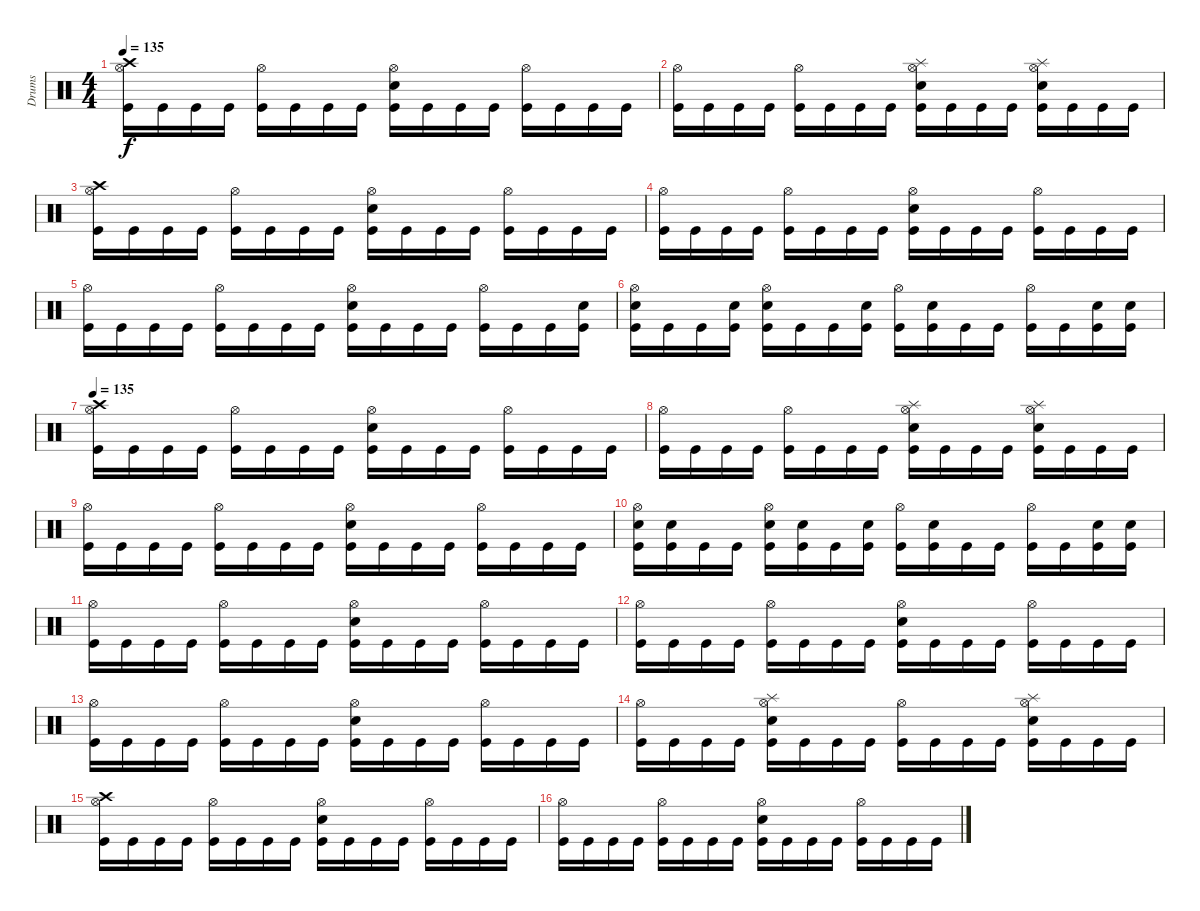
\track ("Drums" "Drums") {instrument percussion}
\staff {score}
\articulation defaults
\ts (4 4)
\tempo 135
\clef neutral
\ks c
("Crash high (hit)" "Hi-Hat (open)" "Kick (hit)").16{dy f} "Kick (hit)".16 "Kick (hit)".16 "Kick (hit)".16 ("Hi-Hat (open)" "Kick (hit)").16 "Kick (hit)".16 "Kick (hit)".16 "Kick (hit)".16 ("Hi-Hat (open)" "Electric Snare (hit)" "Kick (hit)").16 "Kick (hit)".16 "Kick (hit)".16 "Kick (hit)".16 ("Hi-Hat (open)" "Kick (hit)").16 "Kick (hit)".16 "Kick (hit)".16 "Kick (hit)".16 |
("Hi-Hat (open)" "Kick (hit)").16 "Kick (hit)".16 "Kick (hit)".16 "Kick (hit)".16 ("Hi-Hat (open)" "Kick (hit)").16 "Kick (hit)".16 "Kick (hit)".16 "Kick (hit)".16 ("Splash (hit)" "Hi-Hat (open)" "Electric Snare (hit)" "Kick (hit)").16 "Kick (hit)".16 "Kick (hit)".16 "Kick (hit)".16 ("Splash (hit)" "Hi-Hat (open)" "Electric Snare (hit)" "Kick (hit)").16 "Kick (hit)".16 "Kick (hit)".16 "Kick (hit)".16 |
("Crash high (hit)" "Hi-Hat (open)" "Kick (hit)").16 "Kick (hit)".16 "Kick (hit)".16 "Kick (hit)".16 ("Hi-Hat (open)" "Kick (hit)").16 "Kick (hit)".16 "Kick (hit)".16 "Kick (hit)".16 ("Hi-Hat (open)" "Electric Snare (hit)" "Kick (hit)").16 "Kick (hit)".16 "Kick (hit)".16 "Kick (hit)".16 ("Hi-Hat (open)" "Kick (hit)").16 "Kick (hit)".16 "Kick (hit)".16 "Kick (hit)".16 |
("Hi-Hat (open)" "Kick (hit)").16 "Kick (hit)".16 "Kick (hit)".16 "Kick (hit)".16 ("Hi-Hat (open)" "Kick (hit)").16 "Kick (hit)".16 "Kick (hit)".16 "Kick (hit)".16 ("Hi-Hat (open)" "Electric Snare (hit)" "Kick (hit)").16 "Kick (hit)".16 "Kick (hit)".16 "Kick (hit)".16 ("Hi-Hat (open)" "Kick (hit)").16 "Kick (hit)".16 "Kick (hit)".16 "Kick (hit)".16 |
("Hi-Hat (open)" "Kick (hit)").16 "Kick (hit)".16 "Kick (hit)".16 "Kick (hit)".16 ("Hi-Hat (open)" "Kick (hit)").16 "Kick (hit)".16 "Kick (hit)".16 "Kick (hit)".16 ("Hi-Hat (open)" "Electric Snare (hit)" "Kick (hit)").16 "Kick (hit)".16 "Kick (hit)".16 "Kick (hit)".16 ("Hi-Hat (open)" "Kick (hit)").16 "Kick (hit)".16 "Kick (hit)".16 ("Electric Snare (hit)" "Kick (hit)").16 |
("Hi-Hat (open)" "Electric Snare (hit)" "Kick (hit)").16 "Kick (hit)".16 "Kick (hit)".16 ("Electric Snare (hit)" "Kick (hit)").16 ("Hi-Hat (open)" "Electric Snare (hit)" "Kick (hit)").16 "Kick (hit)".16 "Kick (hit)".16 ("Electric Snare (hit)" "Kick (hit)").16 ("Hi-Hat (open)" "Kick (hit)").16 ("Electric Snare (hit)" "Kick (hit)").16 "Kick (hit)".16 "Kick (hit)".16 ("Hi-Hat (open)" "Kick (hit)").16 "Kick (hit)".16 ("Electric Snare (hit)" "Kick (hit)").16 ("Electric Snare (hit)" "Kick (hit)").16 |
\tempo 135
("Crash high (hit)" "Hi-Hat (open)" "Kick (hit)").16 "Kick (hit)".16 "Kick (hit)".16 "Kick (hit)".16 ("Hi-Hat (open)" "Kick (hit)").16 "Kick (hit)".16 "Kick (hit)".16 "Kick (hit)".16 ("Hi-Hat (open)" "Electric Snare (hit)" "Kick (hit)").16 "Kick (hit)".16 "Kick (hit)".16 "Kick (hit)".16 ("Hi-Hat (open)" "Kick (hit)").16 "Kick (hit)".16 "Kick (hit)".16 "Kick (hit)".16 |
("Hi-Hat (open)" "Kick (hit)").16 "Kick (hit)".16 "Kick (hit)".16 "Kick (hit)".16 ("Hi-Hat (open)" "Kick (hit)").16 "Kick (hit)".16 "Kick (hit)".16 "Kick (hit)".16 ("Splash (hit)" "Hi-Hat (open)" "Electric Snare (hit)" "Kick (hit)").16 "Kick (hit)".16 "Kick (hit)".16 "Kick (hit)".16 ("Splash (hit)" "Hi-Hat (open)" "Electric Snare (hit)" "Kick (hit)").16 "Kick (hit)".16 "Kick (hit)".16 "Kick (hit)".16 |
("Hi-Hat (open)" "Kick (hit)").16 "Kick (hit)".16 "Kick (hit)".16 "Kick (hit)".16 ("Hi-Hat (open)" "Kick (hit)").16 "Kick (hit)".16 "Kick (hit)".16 "Kick (hit)".16 ("Hi-Hat (open)" "Electric Snare (hit)" "Kick (hit)").16 "Kick (hit)".16 "Kick (hit)".16 "Kick (hit)".16 ("Hi-Hat (open)" "Kick (hit)").16 "Kick (hit)".16 "Kick (hit)".16 "Kick (hit)".16 |
("Hi-Hat (open)" "Electric Snare (hit)" "Kick (hit)").16 ("Electric Snare (hit)" "Kick (hit)").16 "Kick (hit)".16 "Kick (hit)".16 ("Hi-Hat (open)" "Electric Snare (hit)" "Kick (hit)").16 ("Electric Snare (hit)" "Kick (hit)").16 "Kick (hit)".16 ("Electric Snare (hit)" "Kick (hit)").16 ("Hi-Hat (open)" "Kick (hit)").16 ("Electric Snare (hit)" "Kick (hit)").16 "Kick (hit)".16 "Kick (hit)".16 ("Hi-Hat (open)" "Kick (hit)").16 "Kick (hit)".16 ("Electric Snare (hit)" "Kick (hit)").16 ("Electric Snare (hit)" "Kick (hit)").16 |
("Hi-Hat (open)" "Kick (hit)").16 "Kick (hit)".16 "Kick (hit)".16 "Kick (hit)".16 ("Hi-Hat (open)" "Kick (hit)").16 "Kick (hit)".16 "Kick (hit)".16 "Kick (hit)".16 ("Hi-Hat (open)" "Electric Snare (hit)" "Kick (hit)").16 "Kick (hit)".16 "Kick (hit)".16 "Kick (hit)".16 ("Hi-Hat (open)" "Kick (hit)").16 "Kick (hit)".16 "Kick (hit)".16 "Kick (hit)".16 |
("Hi-Hat (open)" "Kick (hit)").16 "Kick (hit)".16 "Kick (hit)".16 "Kick (hit)".16 ("Hi-Hat (open)" "Kick (hit)").16 "Kick (hit)".16 "Kick (hit)".16 "Kick (hit)".16 ("Hi-Hat (open)" "Electric Snare (hit)" "Kick (hit)").16 "Kick (hit)".16 "Kick (hit)".16 "Kick (hit)".16 ("Hi-Hat (open)" "Kick (hit)").16 "Kick (hit)".16 "Kick (hit)".16 "Kick (hit)".16 |
("Hi-Hat (open)" "Kick (hit)").16 "Kick (hit)".16 "Kick (hit)".16 "Kick (hit)".16 ("Hi-Hat (open)" "Kick (hit)").16 "Kick (hit)".16 "Kick (hit)".16 "Kick (hit)".16 ("Hi-Hat (open)" "Electric Snare (hit)" "Kick (hit)").16 "Kick (hit)".16 "Kick (hit)".16 "Kick (hit)".16 ("Hi-Hat (open)" "Kick (hit)").16 "Kick (hit)".16 "Kick (hit)".16 "Kick (hit)".16 |
("Hi-Hat (open)" "Kick (hit)").16 "Kick (hit)".16 "Kick (hit)".16 "Kick (hit)".16 ("Splash (hit)" "Hi-Hat (open)" "Electric Snare (hit)" "Kick (hit)").16 "Kick (hit)".16 "Kick (hit)".16 "Kick (hit)".16 ("Hi-Hat (open)" "Kick (hit)").16 "Kick (hit)".16 "Kick (hit)".16 "Kick (hit)".16 ("Splash (hit)" "Hi-Hat (open)" "Electric Snare (hit)" "Kick (hit)").16 "Kick (hit)".16 "Kick (hit)".16 "Kick (hit)".16 |
("Crash high (hit)" "Hi-Hat (open)" "Kick (hit)").16 "Kick (hit)".16 "Kick (hit)".16 "Kick (hit)".16 ("Hi-Hat (open)" "Kick (hit)").16 "Kick (hit)".16 "Kick (hit)".16 "Kick (hit)".16 ("Hi-Hat (open)" "Electric Snare (hit)" "Kick (hit)").16 "Kick (hit)".16 "Kick (hit)".16 "Kick (hit)".16 ("Hi-Hat (open)" "Kick (hit)").16 "Kick (hit)".16 "Kick (hit)".16 "Kick (hit)".16 |
("Hi-Hat (open)" "Kick (hit)").16 "Kick (hit)".16 "Kick (hit)".16 "Kick (hit)".16 ("Hi-Hat (open)" "Kick (hit)").16 "Kick (hit)".16 "Kick (hit)".16 "Kick (hit)".16 ("Hi-Hat (open)" "Electric Snare (hit)" "Kick (hit)").16 "Kick (hit)".16 "Kick (hit)".16 "Kick (hit)".16 ("Hi-Hat (open)" "Kick (hit)").16 "Kick (hit)".16 "Kick (hit)".16 "Kick (hit)".16
